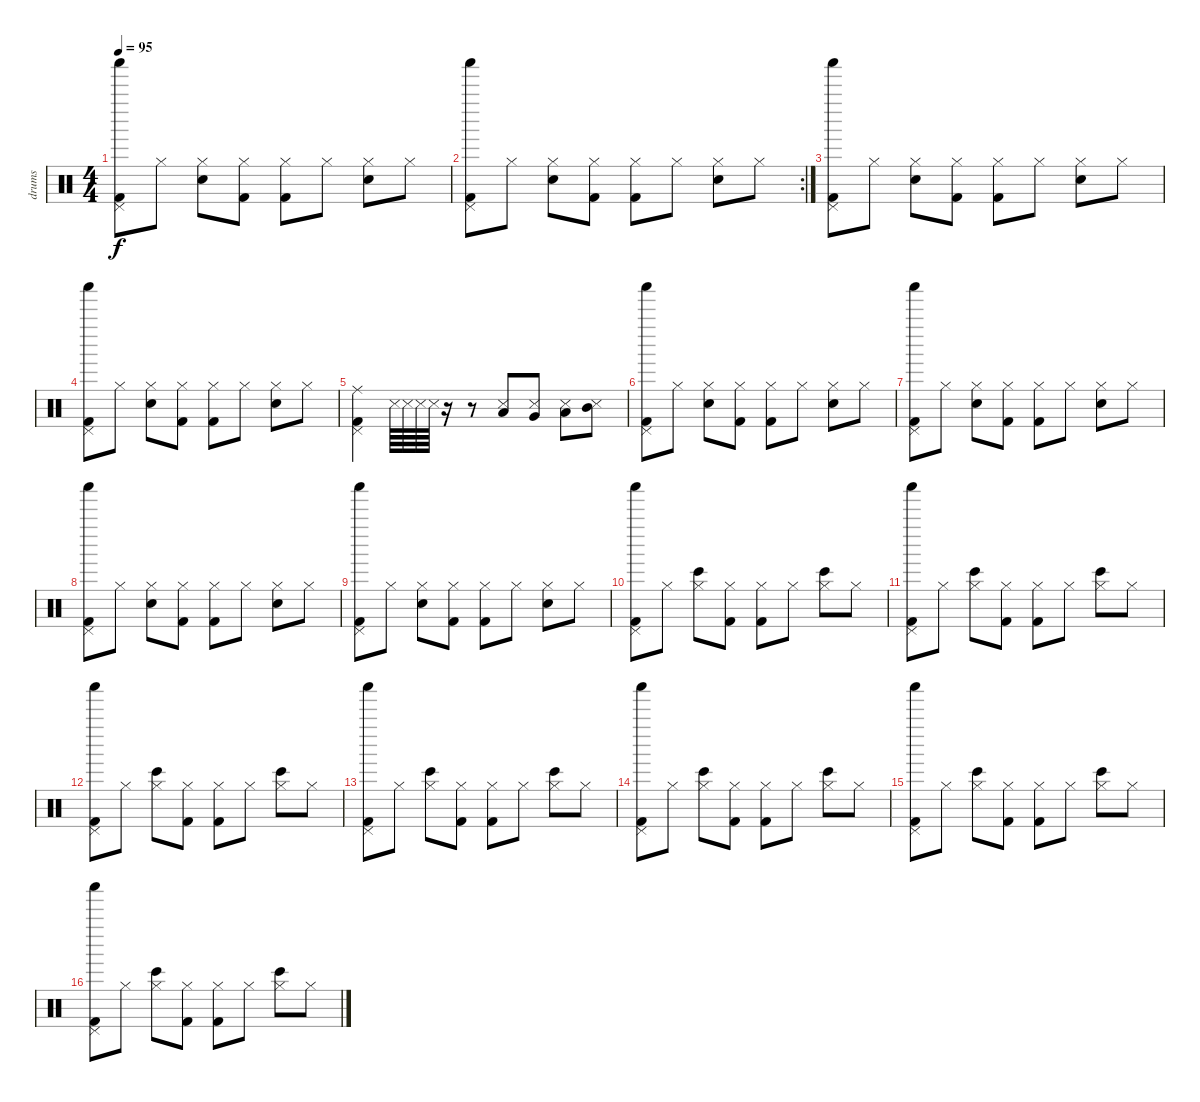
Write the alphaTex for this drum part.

\track ("drums" "drums") {instrument percussion}
\staff {score}
\articulation defaults
\ts (4 4)
\tempo 95
\clef neutral
\ks c
("Kick (hit) 2" "Shaker (hit)" "Pedal Hi-Hat (hit)").8{dy f} "Hi-Hat (closed)".8 ("Snare (hit) 2" "Hi-Hat (closed)").8 ("Kick (hit) 2" "Hi-Hat (closed)").8 ("Kick (hit) 2" "Hi-Hat (closed)").8 "Hi-Hat (closed)".8 ("Snare (hit) 2" "Hi-Hat (closed)").8 "Hi-Hat (closed)".8 |
\rc 2
("Kick (hit) 2" "Shaker (hit)" "Pedal Hi-Hat (hit)").8 "Hi-Hat (closed)".8 ("Snare (hit) 2" "Hi-Hat (closed)").8 ("Kick (hit) 2" "Hi-Hat (closed)").8 ("Kick (hit) 2" "Hi-Hat (closed)").8 "Hi-Hat (closed)".8 ("Snare (hit) 2" "Hi-Hat (closed)").8 "Hi-Hat (closed)".8 |
("Kick (hit) 2" "Shaker (hit)" "Pedal Hi-Hat (hit)").8 "Hi-Hat (closed)".8 ("Snare (hit) 2" "Hi-Hat (closed)").8 ("Kick (hit) 2" "Hi-Hat (closed)").8 ("Kick (hit) 2" "Hi-Hat (closed)").8 "Hi-Hat (closed)".8 ("Snare (hit) 2" "Hi-Hat (closed)").8 "Hi-Hat (closed)".8 |
("Kick (hit) 2" "Shaker (hit)" "Pedal Hi-Hat (hit)").8 "Hi-Hat (closed)".8 ("Snare (hit) 2" "Hi-Hat (closed)").8 ("Kick (hit) 2" "Hi-Hat (closed)").8 ("Kick (hit) 2" "Hi-Hat (closed)").8 "Hi-Hat (closed)".8 ("Snare (hit) 2" "Hi-Hat (closed)").8 "Hi-Hat (closed)".8 |
("Kick (hit) 2" "Ride (middle)" "Pedal Hi-Hat (hit)").4 "Metronome (hit)".64 "Metronome (hit)".64 "Metronome (hit)".64 "Metronome (hit)".64 r.16 r.8 ("Metronome (hit)" "Low Floor Tom (hit)").8 ("Metronome (hit)" "Very Low Tom (hit)").8 ("Metronome (hit)" "Low Tom (hit)").8 ("Mid Tom (hit)" "Metronome (hit)").8 |
("Kick (hit) 2" "Shaker (hit)" "Pedal Hi-Hat (hit)").8 "Hi-Hat (closed)".8 ("Snare (hit) 2" "Hi-Hat (closed)").8 ("Kick (hit) 2" "Hi-Hat (closed)").8 ("Kick (hit) 2" "Hi-Hat (closed)").8 "Hi-Hat (closed)".8 ("Snare (hit) 2" "Hi-Hat (closed)").8 "Hi-Hat (closed)".8 |
("Kick (hit) 2" "Shaker (hit)" "Pedal Hi-Hat (hit)").8 "Hi-Hat (closed)".8 ("Snare (hit) 2" "Hi-Hat (closed)").8 ("Kick (hit) 2" "Hi-Hat (closed)").8 ("Kick (hit) 2" "Hi-Hat (closed)").8 "Hi-Hat (closed)".8 ("Snare (hit) 2" "Hi-Hat (closed)").8 "Hi-Hat (closed)".8 |
("Kick (hit) 2" "Shaker (hit)" "Pedal Hi-Hat (hit)").8 "Hi-Hat (closed)".8 ("Snare (hit) 2" "Hi-Hat (closed)").8 ("Kick (hit) 2" "Hi-Hat (closed)").8 ("Kick (hit) 2" "Hi-Hat (closed)").8 "Hi-Hat (closed)".8 ("Snare (hit) 2" "Hi-Hat (closed)").8 "Hi-Hat (closed)".8 |
("Kick (hit) 2" "Shaker (hit)" "Pedal Hi-Hat (hit)").8 "Hi-Hat (closed)".8 ("Snare (hit) 2" "Hi-Hat (closed)").8 ("Kick (hit) 2" "Hi-Hat (closed)").8 ("Kick (hit) 2" "Hi-Hat (closed)").8 "Hi-Hat (closed)".8 ("Snare (hit) 2" "Hi-Hat (closed)").8 "Hi-Hat (closed)".8 |
("Kick (hit) 2" "Shaker (hit)" "Pedal Hi-Hat (hit)").8 "Hi-Hat (closed)".8 ("Bongo High (hit)" "Hi-Hat (closed)").8 ("Kick (hit) 2" "Hi-Hat (closed)").8 ("Kick (hit) 2" "Hi-Hat (closed)").8 "Hi-Hat (closed)".8 ("Bongo High (hit)" "Hi-Hat (closed)").8 "Hi-Hat (closed)".8 |
("Kick (hit) 2" "Shaker (hit)" "Pedal Hi-Hat (hit)").8 "Hi-Hat (closed)".8 ("Bongo High (hit)" "Hi-Hat (closed)").8 ("Kick (hit) 2" "Hi-Hat (closed)").8 ("Kick (hit) 2" "Hi-Hat (closed)").8 "Hi-Hat (closed)".8 ("Bongo High (hit)" "Hi-Hat (closed)").8 "Hi-Hat (closed)".8 |
("Kick (hit) 2" "Shaker (hit)" "Pedal Hi-Hat (hit)").8 "Hi-Hat (closed)".8 ("Bongo High (hit)" "Hi-Hat (closed)").8 ("Kick (hit) 2" "Hi-Hat (closed)").8 ("Kick (hit) 2" "Hi-Hat (closed)").8 "Hi-Hat (closed)".8 ("Bongo High (hit)" "Hi-Hat (closed)").8 "Hi-Hat (closed)".8 |
("Kick (hit) 2" "Shaker (hit)" "Pedal Hi-Hat (hit)").8 "Hi-Hat (closed)".8 ("Bongo High (hit)" "Hi-Hat (closed)").8 ("Kick (hit) 2" "Hi-Hat (closed)").8 ("Kick (hit) 2" "Hi-Hat (closed)").8 "Hi-Hat (closed)".8 ("Bongo High (hit)" "Hi-Hat (closed)").8 "Hi-Hat (closed)".8 |
("Kick (hit) 2" "Shaker (hit)" "Pedal Hi-Hat (hit)").8 "Hi-Hat (closed)".8 ("Bongo High (hit)" "Hi-Hat (closed)").8 ("Kick (hit) 2" "Hi-Hat (closed)").8 ("Kick (hit) 2" "Hi-Hat (closed)").8 "Hi-Hat (closed)".8 ("Bongo High (hit)" "Hi-Hat (closed)").8 "Hi-Hat (closed)".8 |
("Kick (hit) 2" "Shaker (hit)" "Pedal Hi-Hat (hit)").8 "Hi-Hat (closed)".8 ("Bongo High (hit)" "Hi-Hat (closed)").8 ("Kick (hit) 2" "Hi-Hat (closed)").8 ("Kick (hit) 2" "Hi-Hat (closed)").8 "Hi-Hat (closed)".8 ("Bongo High (hit)" "Hi-Hat (closed)").8 "Hi-Hat (closed)".8 |
("Kick (hit) 2" "Shaker (hit)" "Pedal Hi-Hat (hit)").8 "Hi-Hat (closed)".8 ("Bongo High (hit)" "Hi-Hat (closed)").8 ("Kick (hit) 2" "Hi-Hat (closed)").8 ("Kick (hit) 2" "Hi-Hat (closed)").8 "Hi-Hat (closed)".8 ("Bongo High (hit)" "Hi-Hat (closed)").8 "Hi-Hat (closed)".8
